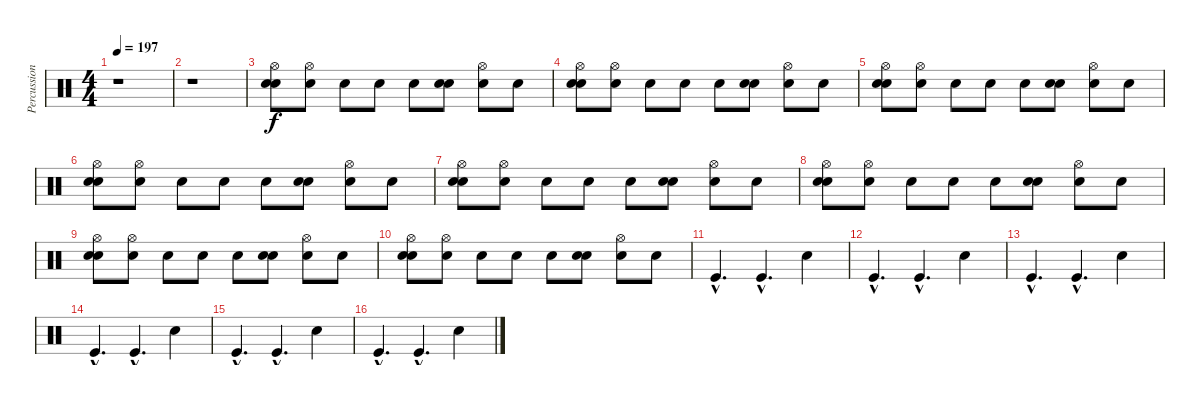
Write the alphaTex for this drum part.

\track ("Percussion" "Percussion") {instrument percussion}
\staff {score}
\articulation defaults
\ts (4 4)
\tempo 197
\clef neutral
\ks c
r.1{dy f} |
r.1 |
("Hi-Hat (open)" "Snare (hit) 2" "Snare (hit)"{x}).8 ("Hi-Hat (open)"{x} "Snare (hit)"{x}).8 "Snare (hit)"{x}.8 "Snare (hit)"{x}.8 "Snare (hit)"{x}.8 ("Snare (hit) 2" "Snare (hit)"{x}).8 ("Hi-Hat (open)" "Snare (hit)"{x}).8 "Snare (hit)"{x}.8 |
("Hi-Hat (open)" "Snare (hit) 2" "Snare (hit)"{x}).8 ("Hi-Hat (open)"{x} "Snare (hit)"{x}).8 "Snare (hit)"{x}.8 "Snare (hit)"{x}.8 "Snare (hit)"{x}.8 ("Snare (hit) 2" "Snare (hit)"{x}).8 ("Hi-Hat (open)" "Snare (hit)"{x}).8 "Snare (hit)"{x}.8 |
("Hi-Hat (open)" "Snare (hit) 2" "Snare (hit)"{x}).8 ("Hi-Hat (open)"{x} "Snare (hit)"{x}).8 "Snare (hit)"{x}.8 "Snare (hit)"{x}.8 "Snare (hit)"{x}.8 ("Snare (hit) 2" "Snare (hit)"{x}).8 ("Hi-Hat (open)" "Snare (hit)"{x}).8 "Snare (hit)"{x}.8 |
("Hi-Hat (open)" "Snare (hit) 2" "Snare (hit)"{x}).8 ("Hi-Hat (open)"{x} "Snare (hit)"{x}).8 "Snare (hit)"{x}.8 "Snare (hit)"{x}.8 "Snare (hit)"{x}.8 ("Snare (hit) 2" "Snare (hit)"{x}).8 ("Hi-Hat (open)" "Snare (hit)"{x}).8 "Snare (hit)"{x}.8 |
("Hi-Hat (open)" "Snare (hit) 2" "Snare (hit)"{x}).8 ("Hi-Hat (open)"{x} "Snare (hit)"{x}).8 "Snare (hit)"{x}.8 "Snare (hit)"{x}.8 "Snare (hit)"{x}.8 ("Snare (hit) 2" "Snare (hit)"{x}).8 ("Hi-Hat (open)" "Snare (hit)"{x}).8 "Snare (hit)"{x}.8 |
("Hi-Hat (open)" "Snare (hit) 2" "Snare (hit)"{x}).8 ("Hi-Hat (open)"{x} "Snare (hit)"{x}).8 "Snare (hit)"{x}.8 "Snare (hit)"{x}.8 "Snare (hit)"{x}.8 ("Snare (hit) 2" "Snare (hit)"{x}).8 ("Hi-Hat (open)" "Snare (hit)"{x}).8 "Snare (hit)"{x}.8 |
("Hi-Hat (open)" "Snare (hit) 2" "Snare (hit)"{x}).8 ("Hi-Hat (open)"{x} "Snare (hit)"{x}).8 "Snare (hit)"{x}.8 "Snare (hit)"{x}.8 "Snare (hit)"{x}.8 ("Snare (hit) 2" "Snare (hit)"{x}).8 ("Hi-Hat (open)" "Snare (hit)"{x}).8 "Snare (hit)"{x}.8 |
("Hi-Hat (open)" "Snare (hit) 2" "Snare (hit)"{x}).8 ("Hi-Hat (open)"{x} "Snare (hit)"{x}).8 "Snare (hit)"{x}.8 "Snare (hit)"{x}.8 "Snare (hit)"{x}.8 ("Snare (hit) 2" "Snare (hit)"{x}).8 ("Hi-Hat (open)" "Snare (hit)"{x}).8 "Snare (hit)"{x}.8 |
"Kick (hit)"{hac}.4{d} "Kick (hit)"{hac}.4{d} "Snare (hit) 2".4 |
"Kick (hit)"{hac}.4{d} "Kick (hit)"{hac}.4{d} "Snare (hit) 2".4 |
"Kick (hit)"{hac}.4{d} "Kick (hit)"{hac}.4{d} "Snare (hit) 2".4 |
"Kick (hit)"{hac}.4{d} "Kick (hit)"{hac}.4{d} "Snare (hit) 2".4 |
"Kick (hit)"{hac}.4{d} "Kick (hit)"{hac}.4{d} "Snare (hit) 2".4 |
"Kick (hit)"{hac}.4{d} "Kick (hit)"{hac}.4{d} "Snare (hit) 2".4
